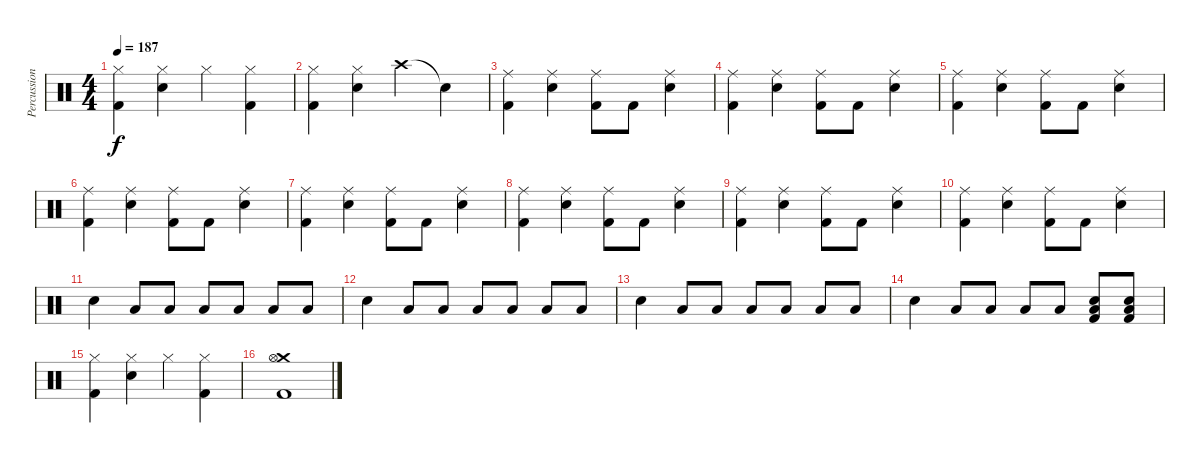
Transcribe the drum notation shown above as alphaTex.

\track ("Percussion" "Percussion") {instrument percussion}
\staff {score}
\articulation defaults
\ts (4 4)
\tempo 187
\clef neutral
\ks c
("Kick (hit) 2" "Hi-Hat (closed)").4{dy f} ("Snare (hit) 2" "Hi-Hat (closed)").4 "Hi-Hat (closed)".4 ("Kick (hit) 2" "Hi-Hat (closed)").4 |
("Kick (hit) 2" "Hi-Hat (closed)").4 ("Snare (hit) 2" "Hi-Hat (closed)").4 "Crash high (hit)".4 "Snare (hit)"{t}.4 |
("Kick (hit) 2" "Ride (middle)").4 ("Snare (hit) 2" "Ride (middle)").4 ("Kick (hit) 2" "Ride (middle)").8 "Kick (hit) 2".8 ("Snare (hit) 2" "Ride (middle)").4 |
("Kick (hit) 2" "Ride (middle)").4 ("Snare (hit) 2" "Ride (middle)").4 ("Kick (hit) 2" "Ride (middle)").8 "Kick (hit) 2".8 ("Snare (hit) 2" "Ride (middle)").4 |
("Kick (hit) 2" "Ride (middle)").4 ("Snare (hit) 2" "Ride (middle)").4 ("Kick (hit) 2" "Ride (middle)").8 "Kick (hit) 2".8 ("Snare (hit) 2" "Ride (middle)").4 |
("Kick (hit) 2" "Ride (middle)").4 ("Snare (hit) 2" "Ride (middle)").4 ("Kick (hit) 2" "Ride (middle)").8 "Kick (hit) 2".8 ("Snare (hit) 2" "Ride (middle)").4 |
("Kick (hit) 2" "Ride (middle)").4 ("Snare (hit) 2" "Ride (middle)").4 ("Kick (hit) 2" "Ride (middle)").8 "Kick (hit) 2".8 ("Snare (hit) 2" "Ride (middle)").4 |
("Kick (hit) 2" "Ride (middle)").4 ("Snare (hit) 2" "Ride (middle)").4 ("Kick (hit) 2" "Ride (middle)").8 "Kick (hit) 2".8 ("Snare (hit) 2" "Ride (middle)").4 |
("Kick (hit) 2" "Ride (middle)").4 ("Snare (hit) 2" "Ride (middle)").4 ("Kick (hit) 2" "Ride (middle)").8 "Kick (hit) 2".8 ("Snare (hit) 2" "Ride (middle)").4 |
("Kick (hit) 2" "Ride (middle)").4 ("Snare (hit) 2" "Ride (middle)").4 ("Kick (hit) 2" "Ride (middle)").8 "Kick (hit) 2".8 ("Snare (hit) 2" "Ride (middle)").4 |
"Snare (hit) 2".4 "Low Tom (hit)".8 "Low Tom (hit)".8 "Low Tom (hit)".8 "Low Floor Tom (hit)".8 "Low Floor Tom (hit)".8 "Low Floor Tom (hit)".8 |
"Snare (hit) 2".4 "Low Tom (hit)".8 "Low Tom (hit)".8 "Low Tom (hit)".8 "Low Floor Tom (hit)".8 "Low Floor Tom (hit)".8 "Low Floor Tom (hit)".8 |
"Snare (hit) 2".4 "Low Tom (hit)".8 "Low Tom (hit)".8 "Low Tom (hit)".8 "Low Floor Tom (hit)".8 "Low Floor Tom (hit)".8 "Low Floor Tom (hit)".8 |
"Snare (hit) 2".4 "Low Tom (hit)".8 "Low Tom (hit)".8 "Low Tom (hit)".8 "Low Floor Tom (hit)".8 ("Snare (hit) 2" "Kick (hit) 2" "Low Floor Tom (hit)").8 ("Kick (hit) 2" "Snare (hit) 2" "Low Floor Tom (hit)").8 |
("Kick (hit) 2" "Hi-Hat (closed)").4 ("Snare (hit) 2" "Hi-Hat (closed)").4 "Hi-Hat (closed)".4 ("Kick (hit) 2" "Hi-Hat (closed)").4 |
("Crash medium (hit)" "Hi-Hat (open)" "Kick (hit) 2").1
